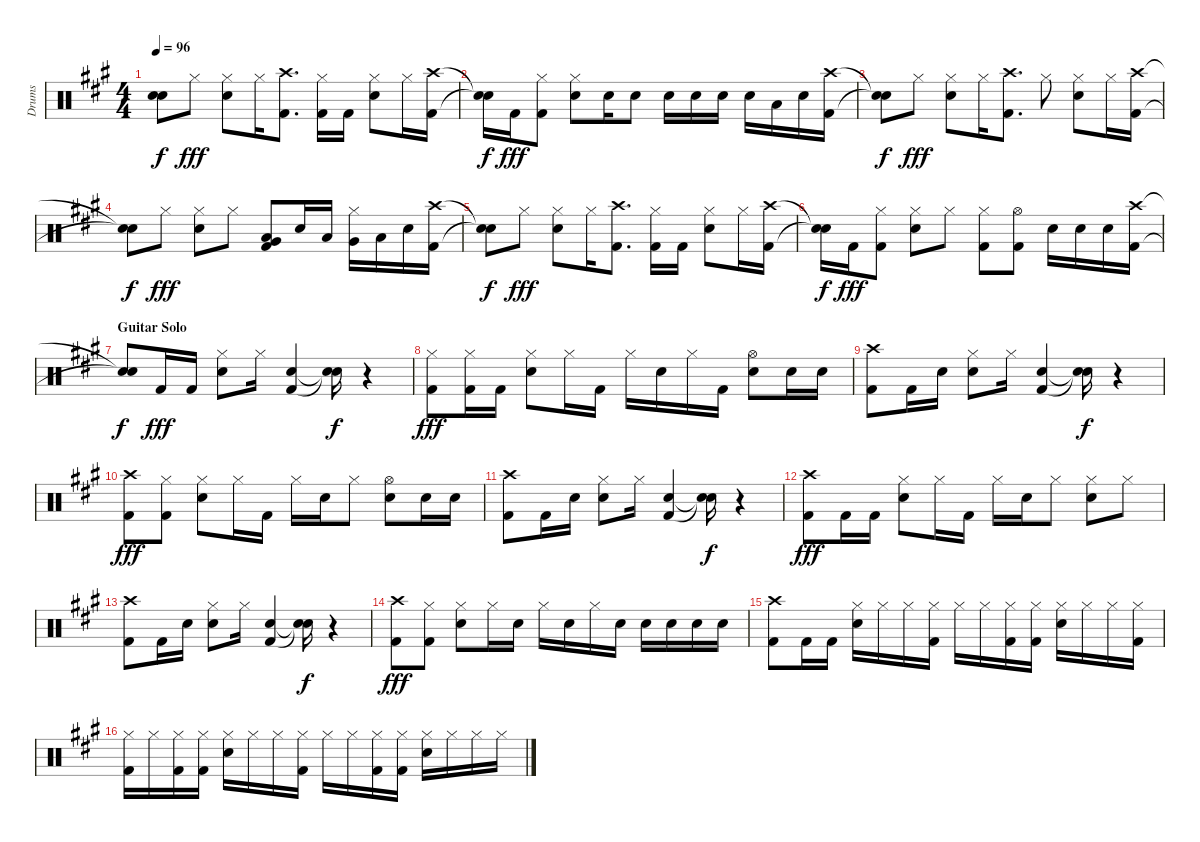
\track ("Drums" "Drums") {instrument percussion}
\staff {score}
\articulation defaults
\ts (4 4)
\tempo 96
\clef neutral
\ks a
("Snare (hit)"{t} "Snare (hit)"{t}).8{dy f} "Hi-Hat (closed)".8{dy fff} ("Electric Snare (hit)" "Hi-Hat (closed)").8 "Hi-Hat (closed)".16 ("Kick (hit) 2" "Crash high (hit)").8{d} ("Kick (hit) 2" "Hi-Hat (closed)").16 "Kick (hit) 2".16 ("Electric Snare (hit)" "Hi-Hat (closed)").8 "Hi-Hat (closed)".16 ("Kick (hit) 2" "Crash high (hit)").16 |
("Snare (hit)"{t} "Snare (hit)"{t}).16{dy f} "Kick (hit) 2".16{dy fff} ("Hi-Hat (closed)" "Kick (hit) 2").8 ("Electric Snare (hit)" "Hi-Hat (closed)").8 "Electric Snare (hit)".16 "Electric Snare (hit)".8 "Electric Snare (hit)".16 "Electric Snare (hit)".16 "Electric Snare (hit)".16 "Electric Snare (hit)".16 "Low Tom (hit)".16 "Electric Snare (hit)".16 ("Crash high (hit)" "Kick (hit) 2").16 |
("Snare (hit)"{t} "Snare (hit)"{t}).8{dy f} "Hi-Hat (closed)".8{dy fff} ("Electric Snare (hit)" "Hi-Hat (closed)").8 "Hi-Hat (closed)".16 ("Crash high (hit)" "Kick (hit) 2").8{d} "Hi-Hat (closed)".8 ("Electric Snare (hit)" "Hi-Hat (closed)").8 "Hi-Hat (closed)".16 ("Kick (hit) 2" "Crash high (hit)").16 |
("Snare (hit)"{t} "Snare (hit)"{t}).8{dy f} "Hi-Hat (closed)".8{dy fff} ("Electric Snare (hit)" "Hi-Hat (closed)").8 "Hi-Hat (closed)".8 ("Kick (hit) 2" "Very Low Tom (hit)" "Low Tom (hit)").8 "Electric Snare (hit)".16 "Low Tom (hit)".16 ("Very Low Tom (hit)" "Hi-Hat (closed)").16 "Low Floor Tom (hit)".16 "Electric Snare (hit)".16 ("Crash high (hit)" "Kick (hit) 2").16 |
("Snare (hit)"{t} "Snare (hit)"{t}).8{dy f} "Hi-Hat (closed)".8{dy fff} ("Electric Snare (hit)" "Hi-Hat (closed)").8 "Hi-Hat (closed)".16 ("Kick (hit) 2" "Crash high (hit)").8{d} ("Kick (hit) 2" "Hi-Hat (closed)").16 "Kick (hit) 2".16 ("Electric Snare (hit)" "Hi-Hat (closed)").8 "Hi-Hat (closed)".16 ("Kick (hit) 2" "Crash high (hit)").16 |
("Snare (hit)"{t} "Snare (hit)"{t}).16{dy f} "Kick (hit) 2".16{dy fff} ("Hi-Hat (closed)" "Kick (hit) 2").8 ("Electric Snare (hit)" "Hi-Hat (closed)").8 "Hi-Hat (closed)".8 ("Kick (hit) 2" "Hi-Hat (closed)").8 ("Kick (hit) 2" "Hi-Hat (open)").8 "Electric Snare (hit)".16 "Electric Snare (hit)".16 "Electric Snare (hit)".16 ("Kick (hit) 2" "Crash high (hit)").16 |
\section ("" "Guitar Solo")
("Snare (hit)"{t} "Snare (hit)"{t}).8{dy f} "Kick (hit) 2".16{dy fff} "Kick (hit) 2".16 ("Electric Snare (hit)" "Hi-Hat (closed)").8 "Hi-Hat (closed)".16 ("Kick (hit) 2" "Electric Snare (hit)").4 ("Snare (hit)"{t} "Snare (hit)"{t}).16{dy f} r.4 |
("Hi-Hat (closed)" "Kick (hit) 2").8{dy fff} ("Kick (hit) 2" "Hi-Hat (closed)").16 "Kick (hit) 2".16 ("Hi-Hat (closed)" "Electric Snare (hit)").8 "Hi-Hat (closed)".16 "Kick (hit) 2".16 "Hi-Hat (closed)".16 "Electric Snare (hit)".16 "Hi-Hat (closed)".16 "Kick (hit) 2".16 ("Hi-Hat (open)" "Electric Snare (hit)").8 "Electric Snare (hit)".16 "Electric Snare (hit)".16 |
("Crash high (hit)" "Kick (hit) 2").8 "Kick (hit) 2".16 "Electric Snare (hit)".16 ("Electric Snare (hit)" "Hi-Hat (closed)").8 "Hi-Hat (closed)".16 ("Kick (hit) 2" "Electric Snare (hit)").4 ("Snare (hit)"{t} "Snare (hit)"{t}).16{dy f} r.4 |
("Crash high (hit)" "Kick (hit) 2").8{dy fff} ("Kick (hit) 2" "Hi-Hat (closed)").8 ("Hi-Hat (closed)" "Electric Snare (hit)").8 "Hi-Hat (closed)".16 "Kick (hit) 2".16 "Hi-Hat (closed)".16 "Electric Snare (hit)".16 "Hi-Hat (closed)".8 ("Electric Snare (hit)" "Hi-Hat (open)").8 "Electric Snare (hit)".16 "Electric Snare (hit)".16 |
("Crash high (hit)" "Kick (hit) 2").8 "Kick (hit) 2".16 "Electric Snare (hit)".16 ("Electric Snare (hit)" "Hi-Hat (closed)").8 "Hi-Hat (closed)".16 ("Kick (hit) 2" "Electric Snare (hit)").4 ("Snare (hit)"{t} "Snare (hit)"{t}).16{dy f} r.4 |
("Crash high (hit)" "Kick (hit) 2").8{dy fff} "Kick (hit) 2".16 "Kick (hit) 2".16 ("Hi-Hat (closed)" "Electric Snare (hit)").8 "Hi-Hat (closed)".16 "Kick (hit) 2".16 "Hi-Hat (closed)".16 "Electric Snare (hit)".16 "Hi-Hat (closed)".8 ("Electric Snare (hit)" "Hi-Hat (closed)").8 "Hi-Hat (closed)".8 |
("Crash high (hit)" "Kick (hit) 2").8 "Kick (hit) 2".16 "Electric Snare (hit)".16 ("Electric Snare (hit)" "Hi-Hat (closed)").8 "Hi-Hat (closed)".16 ("Kick (hit) 2" "Electric Snare (hit)").4 ("Snare (hit)"{t} "Snare (hit)"{t}).16{dy f} r.4 |
("Crash high (hit)" "Kick (hit) 2").8{dy fff} ("Kick (hit) 2" "Hi-Hat (closed)").8 ("Hi-Hat (closed)" "Electric Snare (hit)").8 "Hi-Hat (closed)".16 "Electric Snare (hit)".16 "Hi-Hat (closed)".16 "Electric Snare (hit)".16 "Hi-Hat (closed)".16 "Electric Snare (hit)".16 "Electric Snare (hit)".16 "Electric Snare (hit)".16 "Electric Snare (hit)".16 "Electric Snare (hit)".16 |
("Crash high (hit)" "Kick (hit) 2").8 "Kick (hit) 2".16 "Kick (hit) 2".16 ("Hi-Hat (closed)" "Electric Snare (hit)").16 "Hi-Hat (closed)".16 "Hi-Hat (closed)".16 ("Hi-Hat (closed)" "Kick (hit) 2").16 "Hi-Hat (closed)".16 "Hi-Hat (closed)".16 ("Kick (hit) 2" "Hi-Hat (closed)").16 ("Kick (hit) 2" "Hi-Hat (closed)").16 ("Electric Snare (hit)" "Hi-Hat (closed)").16 "Hi-Hat (closed)".16 "Hi-Hat (closed)".16 ("Kick (hit) 2" "Hi-Hat (closed)").16 |
("Hi-Hat (closed)" "Kick (hit) 2").16 "Hi-Hat (closed)".16 ("Hi-Hat (closed)" "Kick (hit) 2").16 ("Hi-Hat (closed)" "Kick (hit) 2").16 ("Hi-Hat (closed)" "Electric Snare (hit)").16 "Hi-Hat (closed)".16 "Hi-Hat (closed)".16 ("Hi-Hat (closed)" "Kick (hit) 2").16 "Hi-Hat (closed)".16 "Hi-Hat (closed)".16 ("Kick (hit) 2" "Hi-Hat (closed)").16 ("Kick (hit) 2" "Hi-Hat (closed)").16 ("Electric Snare (hit)" "Hi-Hat (closed)").16 "Hi-Hat (closed)".16 "Hi-Hat (closed)".16 "Hi-Hat (closed)".16
